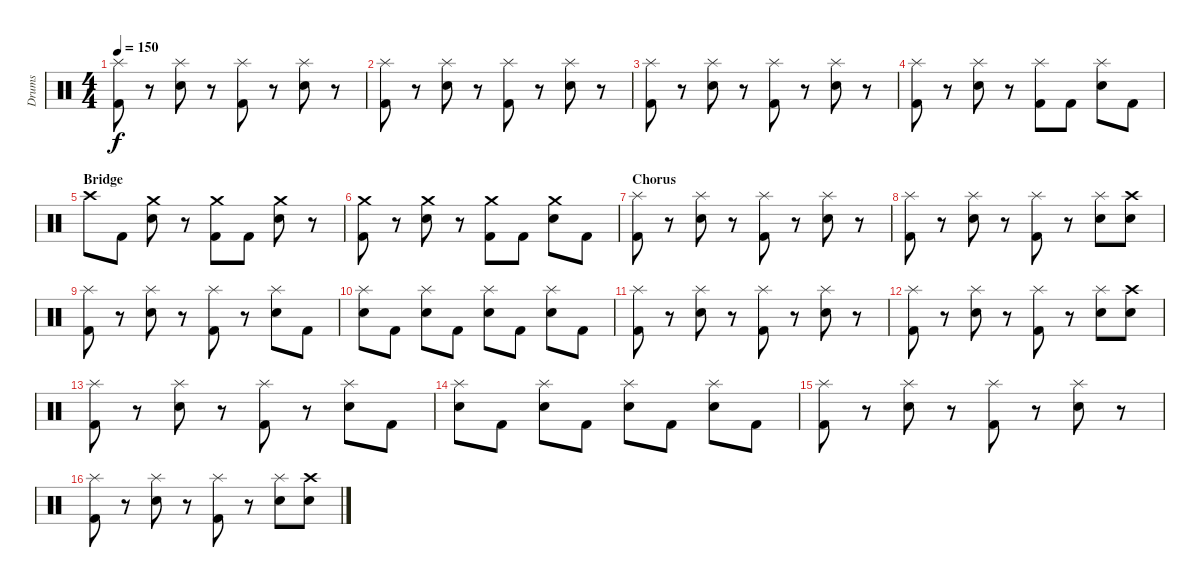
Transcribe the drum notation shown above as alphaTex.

\track ("Drums" "Drums") {instrument percussion}
\staff {score}
\articulation defaults
\ts (4 4)
\tempo 150
\clef neutral
\ks c
("Splash (hit)" "Kick (hit) 2").8{dy f} r.8 ("Splash (hit)" "Electric Snare (hit)").8 r.8 ("Splash (hit)" "Kick (hit) 2").8 r.8 ("Splash (hit)" "Electric Snare (hit)").8 r.8 |
("Splash (hit)" "Kick (hit) 2").8 r.8 ("Splash (hit)" "Electric Snare (hit)").8 r.8 ("Splash (hit)" "Kick (hit) 2").8 r.8 ("Splash (hit)" "Electric Snare (hit)").8 r.8 |
("Splash (hit)" "Kick (hit) 2").8 r.8 ("Splash (hit)" "Electric Snare (hit)").8 r.8 ("Splash (hit)" "Kick (hit) 2").8 r.8 ("Splash (hit)" "Electric Snare (hit)").8 r.8 |
("Splash (hit)" "Kick (hit) 2").8 r.8 ("Splash (hit)" "Electric Snare (hit)").8 r.8 ("Splash (hit)" "Kick (hit) 2").8 "Kick (hit) 2".8 ("Splash (hit)" "Electric Snare (hit)").8 "Kick (hit) 2".8 |
\section ("" "Bridge")
"Crash high (hit)".8 "Kick (hit) 2".8 ("Crash medium (hit)" "Electric Snare (hit)").8 r.8 ("Crash medium (hit)" "Kick (hit) 2").8 "Kick (hit) 2".8 ("Crash medium (hit)" "Electric Snare (hit)").8 r.8 |
("Crash medium (hit)" "Kick (hit) 2").8 r.8 ("Crash medium (hit)" "Electric Snare (hit)").8 r.8 ("Crash medium (hit)" "Kick (hit) 2").8 "Kick (hit) 2".8 ("Crash medium (hit)" "Electric Snare (hit)").8 "Kick (hit) 2".8 |
\section ("" "Chorus")
("Splash (hit)" "Kick (hit) 2").8 r.8 ("Splash (hit)" "Electric Snare (hit)").8 r.8 ("Splash (hit)" "Kick (hit) 2").8 r.8 ("Splash (hit)" "Electric Snare (hit)").8 r.8 |
("Splash (hit)" "Kick (hit) 2").8 r.8 ("Splash (hit)" "Electric Snare (hit)").8 r.8 ("Splash (hit)" "Kick (hit) 2").8 r.8 ("Splash (hit)" "Electric Snare (hit)").8 ("Crash high (hit)" "Electric Snare (hit)").8 |
("Splash (hit)" "Kick (hit) 2").8 r.8 ("Splash (hit)" "Electric Snare (hit)").8 r.8 ("Splash (hit)" "Kick (hit) 2").8 r.8 ("Splash (hit)" "Electric Snare (hit)").8 "Kick (hit) 2".8 |
("Splash (hit)" "Electric Snare (hit)").8 "Kick (hit) 2".8 ("Splash (hit)" "Electric Snare (hit)").8 "Kick (hit) 2".8 ("Splash (hit)" "Electric Snare (hit)").8 "Kick (hit) 2".8 ("Splash (hit)" "Electric Snare (hit)").8 "Kick (hit) 2".8 |
("Splash (hit)" "Kick (hit) 2").8 r.8 ("Splash (hit)" "Electric Snare (hit)").8 r.8 ("Splash (hit)" "Kick (hit) 2").8 r.8 ("Splash (hit)" "Electric Snare (hit)").8 r.8 |
("Splash (hit)" "Kick (hit) 2").8 r.8 ("Splash (hit)" "Electric Snare (hit)").8 r.8 ("Splash (hit)" "Kick (hit) 2").8 r.8 ("Splash (hit)" "Electric Snare (hit)").8 ("Crash high (hit)" "Electric Snare (hit)").8 |
("Splash (hit)" "Kick (hit) 2").8 r.8 ("Splash (hit)" "Electric Snare (hit)").8 r.8 ("Splash (hit)" "Kick (hit) 2").8 r.8 ("Splash (hit)" "Electric Snare (hit)").8 "Kick (hit) 2".8 |
("Splash (hit)" "Electric Snare (hit)").8 "Kick (hit) 2".8 ("Splash (hit)" "Electric Snare (hit)").8 "Kick (hit) 2".8 ("Splash (hit)" "Electric Snare (hit)").8 "Kick (hit) 2".8 ("Splash (hit)" "Electric Snare (hit)").8 "Kick (hit) 2".8 |
("Splash (hit)" "Kick (hit) 2").8 r.8 ("Splash (hit)" "Electric Snare (hit)").8 r.8 ("Splash (hit)" "Kick (hit) 2").8 r.8 ("Splash (hit)" "Electric Snare (hit)").8 r.8 |
("Splash (hit)" "Kick (hit) 2").8 r.8 ("Splash (hit)" "Electric Snare (hit)").8 r.8 ("Splash (hit)" "Kick (hit) 2").8 r.8 ("Splash (hit)" "Electric Snare (hit)").8 ("Crash high (hit)" "Electric Snare (hit)").8
